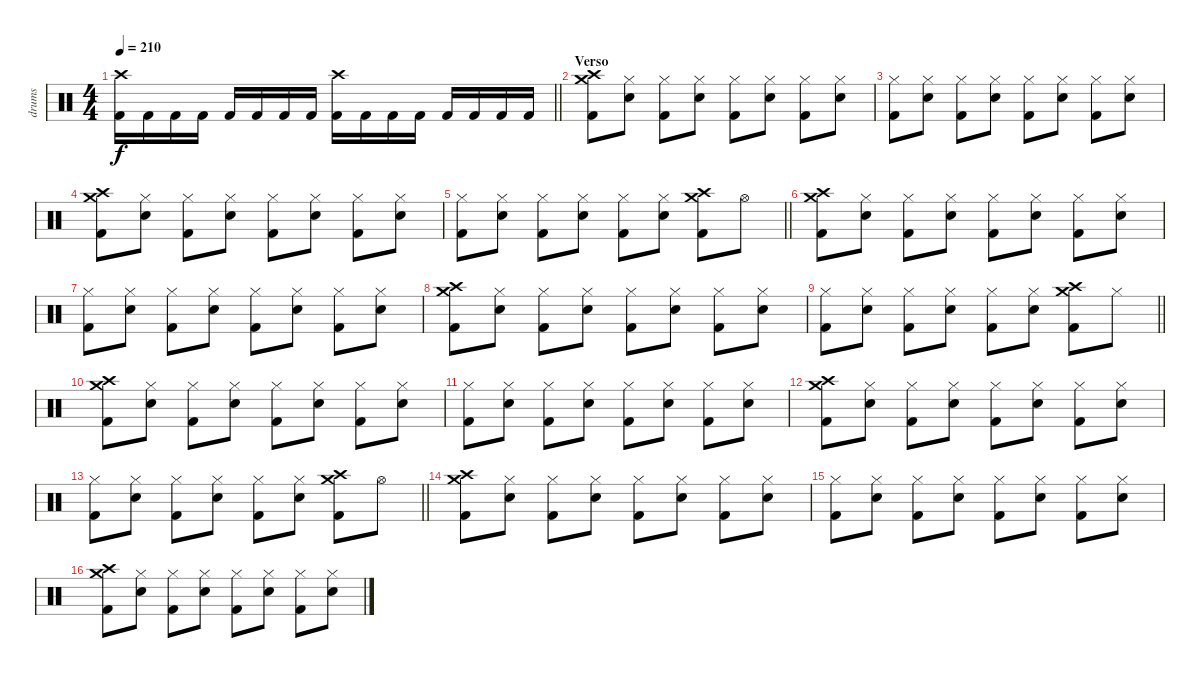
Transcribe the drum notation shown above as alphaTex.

\track ("drums" "drums") {instrument percussion}
\staff {score}
\articulation defaults
\ts (4 4)
\tempo 210
\clef neutral
\barLineRight lightlight
\ks c
("Crash high (hit)" "Kick (hit) 2").16{dy f} "Kick (hit) 2".16 "Kick (hit) 2".16 "Kick (hit) 2".16 "Kick (hit) 2".16 "Kick (hit) 2".16 "Kick (hit) 2".16 "Kick (hit) 2".16 ("Crash high (hit)" "Kick (hit) 2").16 "Kick (hit) 2".16 "Kick (hit) 2".16 "Kick (hit) 2".16 "Kick (hit) 2".16 "Kick (hit) 2".16 "Kick (hit) 2".16 "Kick (hit) 2".16 |
\section ("" "Verso")
("Crash high (hit)" "Crash medium (hit)" "Kick (hit) 2").8 ("Hi-Hat (closed)" "Electric Snare (hit)").8 ("Hi-Hat (closed)" "Kick (hit) 2").8 ("Hi-Hat (closed)" "Electric Snare (hit)").8 ("Hi-Hat (closed)" "Kick (hit) 2").8 ("Hi-Hat (closed)" "Electric Snare (hit)").8 ("Hi-Hat (closed)" "Kick (hit) 2").8 ("Hi-Hat (closed)" "Electric Snare (hit)").8 |
("Hi-Hat (closed)" "Kick (hit) 2").8 ("Hi-Hat (closed)" "Electric Snare (hit)").8 ("Hi-Hat (closed)" "Kick (hit) 2").8 ("Hi-Hat (closed)" "Electric Snare (hit)").8 ("Hi-Hat (closed)" "Kick (hit) 2").8 ("Hi-Hat (closed)" "Electric Snare (hit)").8 ("Hi-Hat (closed)" "Kick (hit) 2").8 ("Hi-Hat (closed)" "Electric Snare (hit)").8 |
("Crash high (hit)" "Crash medium (hit)" "Kick (hit) 2").8 ("Hi-Hat (closed)" "Electric Snare (hit)").8 ("Hi-Hat (closed)" "Kick (hit) 2").8 ("Hi-Hat (closed)" "Electric Snare (hit)").8 ("Hi-Hat (closed)" "Kick (hit) 2").8 ("Hi-Hat (closed)" "Electric Snare (hit)").8 ("Hi-Hat (closed)" "Kick (hit) 2").8 ("Hi-Hat (closed)" "Electric Snare (hit)").8 |
\barLineRight lightlight
("Hi-Hat (closed)" "Kick (hit) 2").8 ("Hi-Hat (closed)" "Electric Snare (hit)").8 ("Hi-Hat (closed)" "Kick (hit) 2").8 ("Hi-Hat (closed)" "Electric Snare (hit)").8 ("Hi-Hat (closed)" "Kick (hit) 2").8 ("Hi-Hat (closed)" "Electric Snare (hit)").8 ("Crash high (hit)" "Crash medium (hit)" "Kick (hit) 2").8 "Hi-Hat (open)".8 |
("Crash high (hit)" "Crash medium (hit)" "Kick (hit) 2").8 ("Hi-Hat (closed)" "Electric Snare (hit)").8 ("Hi-Hat (closed)" "Kick (hit) 2").8 ("Hi-Hat (closed)" "Electric Snare (hit)").8 ("Hi-Hat (closed)" "Kick (hit) 2").8 ("Hi-Hat (closed)" "Electric Snare (hit)").8 ("Hi-Hat (closed)" "Kick (hit) 2").8 ("Hi-Hat (closed)" "Electric Snare (hit)").8 |
("Hi-Hat (closed)" "Kick (hit) 2").8 ("Hi-Hat (closed)" "Electric Snare (hit)").8 ("Hi-Hat (closed)" "Kick (hit) 2").8 ("Hi-Hat (closed)" "Electric Snare (hit)").8 ("Hi-Hat (closed)" "Kick (hit) 2").8 ("Hi-Hat (closed)" "Electric Snare (hit)").8 ("Hi-Hat (closed)" "Kick (hit) 2").8 ("Hi-Hat (closed)" "Electric Snare (hit)").8 |
("Crash high (hit)" "Crash medium (hit)" "Kick (hit) 2").8 ("Hi-Hat (closed)" "Electric Snare (hit)").8 ("Hi-Hat (closed)" "Kick (hit) 2").8 ("Hi-Hat (closed)" "Electric Snare (hit)").8 ("Hi-Hat (closed)" "Kick (hit) 2").8 ("Hi-Hat (closed)" "Electric Snare (hit)").8 ("Hi-Hat (closed)" "Kick (hit) 2").8 ("Hi-Hat (closed)" "Electric Snare (hit)").8 |
\barLineRight lightlight
("Hi-Hat (closed)" "Kick (hit) 2").8 ("Hi-Hat (closed)" "Electric Snare (hit)").8 ("Hi-Hat (closed)" "Kick (hit) 2").8 ("Hi-Hat (closed)" "Electric Snare (hit)").8 ("Hi-Hat (closed)" "Kick (hit) 2").8 ("Hi-Hat (closed)" "Electric Snare (hit)").8 ("Crash high (hit)" "Crash medium (hit)" "Kick (hit) 2").8 "Hi-Hat (closed)".8 |
("Crash high (hit)" "Crash medium (hit)" "Kick (hit) 2").8 ("Hi-Hat (closed)" "Electric Snare (hit)").8 ("Hi-Hat (closed)" "Kick (hit) 2").8 ("Hi-Hat (closed)" "Electric Snare (hit)").8 ("Hi-Hat (closed)" "Kick (hit) 2").8 ("Hi-Hat (closed)" "Electric Snare (hit)").8 ("Hi-Hat (closed)" "Kick (hit) 2").8 ("Hi-Hat (closed)" "Electric Snare (hit)").8 |
("Hi-Hat (closed)" "Kick (hit) 2").8 ("Hi-Hat (closed)" "Electric Snare (hit)").8 ("Hi-Hat (closed)" "Kick (hit) 2").8 ("Hi-Hat (closed)" "Electric Snare (hit)").8 ("Hi-Hat (closed)" "Kick (hit) 2").8 ("Hi-Hat (closed)" "Electric Snare (hit)").8 ("Hi-Hat (closed)" "Kick (hit) 2").8 ("Hi-Hat (closed)" "Electric Snare (hit)").8 |
("Crash high (hit)" "Crash medium (hit)" "Kick (hit) 2").8 ("Hi-Hat (closed)" "Electric Snare (hit)").8 ("Hi-Hat (closed)" "Kick (hit) 2").8 ("Hi-Hat (closed)" "Electric Snare (hit)").8 ("Hi-Hat (closed)" "Kick (hit) 2").8 ("Hi-Hat (closed)" "Electric Snare (hit)").8 ("Hi-Hat (closed)" "Kick (hit) 2").8 ("Hi-Hat (closed)" "Electric Snare (hit)").8 |
\barLineRight lightlight
("Hi-Hat (closed)" "Kick (hit) 2").8 ("Hi-Hat (closed)" "Electric Snare (hit)").8 ("Hi-Hat (closed)" "Kick (hit) 2").8 ("Hi-Hat (closed)" "Electric Snare (hit)").8 ("Hi-Hat (closed)" "Kick (hit) 2").8 ("Hi-Hat (closed)" "Electric Snare (hit)").8 ("Crash high (hit)" "Crash medium (hit)" "Kick (hit) 2").8 "Hi-Hat (open)".8 |
("Crash high (hit)" "Crash medium (hit)" "Kick (hit) 2").8 ("Hi-Hat (closed)" "Electric Snare (hit)").8 ("Hi-Hat (closed)" "Kick (hit) 2").8 ("Hi-Hat (closed)" "Electric Snare (hit)").8 ("Hi-Hat (closed)" "Kick (hit) 2").8 ("Hi-Hat (closed)" "Electric Snare (hit)").8 ("Hi-Hat (closed)" "Kick (hit) 2").8 ("Hi-Hat (closed)" "Electric Snare (hit)").8 |
("Hi-Hat (closed)" "Kick (hit) 2").8 ("Hi-Hat (closed)" "Electric Snare (hit)").8 ("Hi-Hat (closed)" "Kick (hit) 2").8 ("Hi-Hat (closed)" "Electric Snare (hit)").8 ("Hi-Hat (closed)" "Kick (hit) 2").8 ("Hi-Hat (closed)" "Electric Snare (hit)").8 ("Hi-Hat (closed)" "Kick (hit) 2").8 ("Hi-Hat (closed)" "Electric Snare (hit)").8 |
("Crash high (hit)" "Crash medium (hit)" "Kick (hit) 2").8 ("Hi-Hat (closed)" "Electric Snare (hit)").8 ("Hi-Hat (closed)" "Kick (hit) 2").8 ("Hi-Hat (closed)" "Electric Snare (hit)").8 ("Hi-Hat (closed)" "Kick (hit) 2").8 ("Hi-Hat (closed)" "Electric Snare (hit)").8 ("Hi-Hat (closed)" "Kick (hit) 2").8 ("Hi-Hat (closed)" "Electric Snare (hit)").8
